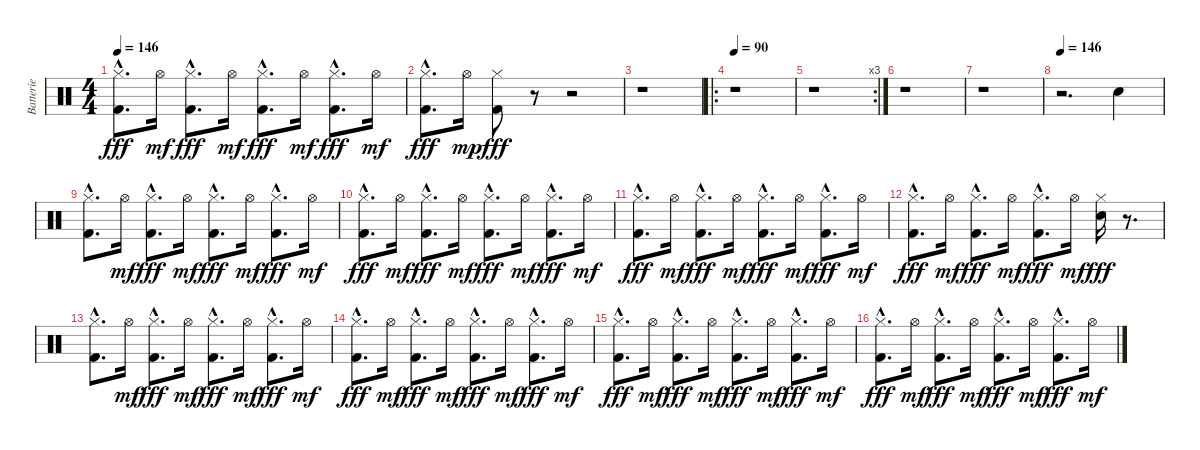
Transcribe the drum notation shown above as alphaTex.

\track ("Batterie" "Batterie") {instrument percussion}
\staff {score}
\articulation defaults
\ts (4 4)
\tempo 146
\clef neutral
\ks c
("Hi-Hat (closed)"{hac} "Kick (hit) 2"{hac}).8{d dy fff} "Hi-Hat (open)".16{dy mf} ("Hi-Hat (closed)"{hac} "Kick (hit) 2"{hac}).8{d dy fff} "Hi-Hat (open)".16{dy mf} ("Hi-Hat (closed)"{hac} "Kick (hit) 2"{hac}).8{d dy fff} "Hi-Hat (open)".16{dy mf} ("Hi-Hat (closed)"{hac} "Kick (hit) 2"{hac}).8{d dy fff} "Hi-Hat (open)".16{dy mf} |
("Hi-Hat (closed)"{hac} "Kick (hit) 2"{hac}).8{d dy fff} "Hi-Hat (open)".16{dy mp} ("Hi-Hat (closed)" "Kick (hit) 2").8{dy fff} r.8 r.2 |
r.1 |
\ro
\tempo 90
r.1 |
\rc 3
r.1 |
r.1 |
r.1 |
\tempo 146
r.2{d} "Electric Snare (hit)".4 |
("Hi-Hat (closed)"{hac} "Kick (hit) 2"{hac}).8{d} "Hi-Hat (open)".16{dy mf} ("Hi-Hat (closed)"{hac} "Kick (hit) 2"{hac}).8{d dy fff} "Hi-Hat (open)".16{dy mf} ("Hi-Hat (closed)"{hac} "Kick (hit) 2"{hac}).8{d dy fff} "Hi-Hat (open)".16{dy mf} ("Hi-Hat (closed)"{hac} "Kick (hit) 2"{hac}).8{d dy fff} "Hi-Hat (open)".16{dy mf} |
("Hi-Hat (closed)"{hac} "Kick (hit) 2"{hac}).8{d dy fff} "Hi-Hat (open)".16{dy mf} ("Hi-Hat (closed)"{hac} "Kick (hit) 2"{hac}).8{d dy fff} "Hi-Hat (open)".16{dy mf} ("Hi-Hat (closed)"{hac} "Kick (hit) 2"{hac}).8{d dy fff} "Hi-Hat (open)".16{dy mf} ("Hi-Hat (closed)"{hac} "Kick (hit) 2"{hac}).8{d dy fff} "Hi-Hat (open)".16{dy mf} |
("Hi-Hat (closed)"{hac} "Kick (hit) 2"{hac}).8{d dy fff} "Hi-Hat (open)".16{dy mf} ("Hi-Hat (closed)"{hac} "Kick (hit) 2"{hac}).8{d dy fff} "Hi-Hat (open)".16{dy mf} ("Hi-Hat (closed)"{hac} "Kick (hit) 2"{hac}).8{d dy fff} "Hi-Hat (open)".16{dy mf} ("Hi-Hat (closed)"{hac} "Kick (hit) 2"{hac}).8{d dy fff} "Hi-Hat (open)".16{dy mf} |
("Hi-Hat (closed)"{hac} "Kick (hit) 2"{hac}).8{d dy fff} "Hi-Hat (open)".16{dy mf} ("Hi-Hat (closed)"{hac} "Kick (hit) 2"{hac}).8{d dy fff} "Hi-Hat (open)".16{dy mf} ("Hi-Hat (closed)"{hac} "Kick (hit) 2"{hac}).8{d dy fff} "Hi-Hat (open)".16{dy mf} ("Hi-Hat (closed)" "Electric Snare (hit)").16{dy fff} r.8{d} |
("Hi-Hat (closed)"{hac} "Kick (hit) 2"{hac}).8{d} "Hi-Hat (open)".16{dy mf} ("Hi-Hat (closed)"{hac} "Kick (hit) 2"{hac}).8{d dy fff} "Hi-Hat (open)".16{dy mf} ("Hi-Hat (closed)"{hac} "Kick (hit) 2"{hac}).8{d dy fff} "Hi-Hat (open)".16{dy mf} ("Hi-Hat (closed)"{hac} "Kick (hit) 2"{hac}).8{d dy fff} "Hi-Hat (open)".16{dy mf} |
("Hi-Hat (closed)"{hac} "Kick (hit) 2"{hac}).8{d dy fff} "Hi-Hat (open)".16{dy mf} ("Hi-Hat (closed)"{hac} "Kick (hit) 2"{hac}).8{d dy fff} "Hi-Hat (open)".16{dy mf} ("Hi-Hat (closed)"{hac} "Kick (hit) 2"{hac}).8{d dy fff} "Hi-Hat (open)".16{dy mf} ("Hi-Hat (closed)"{hac} "Kick (hit) 2"{hac}).8{d dy fff} "Hi-Hat (open)".16{dy mf} |
("Hi-Hat (closed)"{hac} "Kick (hit) 2"{hac}).8{d dy fff} "Hi-Hat (open)".16{dy mf} ("Hi-Hat (closed)"{hac} "Kick (hit) 2"{hac}).8{d dy fff} "Hi-Hat (open)".16{dy mf} ("Hi-Hat (closed)"{hac} "Kick (hit) 2"{hac}).8{d dy fff} "Hi-Hat (open)".16{dy mf} ("Hi-Hat (closed)"{hac} "Kick (hit) 2"{hac}).8{d dy fff} "Hi-Hat (open)".16{dy mf} |
("Hi-Hat (closed)"{hac} "Kick (hit) 2"{hac}).8{d dy fff} "Hi-Hat (open)".16{dy mf} ("Hi-Hat (closed)"{hac} "Kick (hit) 2"{hac}).8{d dy fff} "Hi-Hat (open)".16{dy mf} ("Hi-Hat (closed)"{hac} "Kick (hit) 2"{hac}).8{d dy fff} "Hi-Hat (open)".16{dy mf} ("Hi-Hat (closed)"{hac} "Kick (hit) 2"{hac}).8{d dy fff} "Hi-Hat (open)".16{dy mf}
